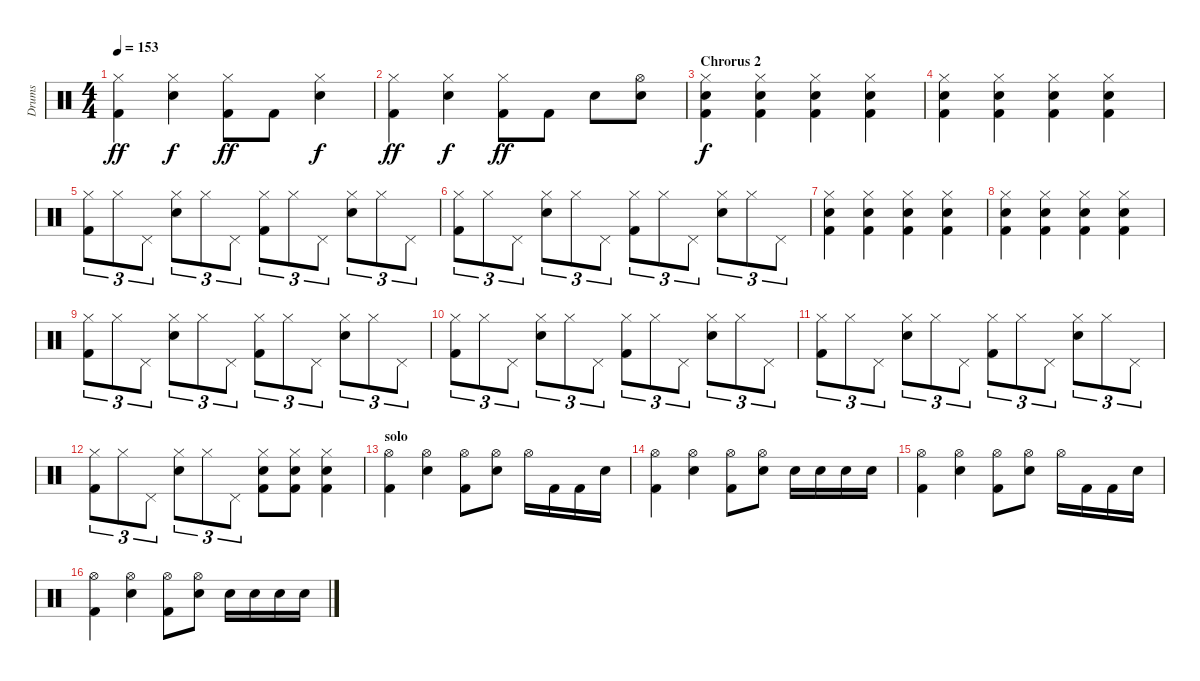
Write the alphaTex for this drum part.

\track ("Drums" "Drums") {instrument percussion}
\staff {score}
\articulation defaults
\ts (4 4)
\tempo 153
\clef neutral
\ks c
("Hi-Hat (closed)" "Kick (hit) 2").4{dy ff} ("Hi-Hat (closed)" "Electric Snare (hit)").4{dy f} ("Hi-Hat (closed)" "Kick (hit) 2").8{dy ff} "Kick (hit) 2".8 ("Hi-Hat (closed)" "Electric Snare (hit)").4{dy f} |
("Hi-Hat (closed)" "Kick (hit) 2").4{dy ff} ("Hi-Hat (closed)" "Electric Snare (hit)").4{dy f} ("Hi-Hat (closed)" "Kick (hit) 2").8{dy ff} "Kick (hit) 2".8 "Electric Snare (hit)".8 ("Hi-Hat (open)" "Electric Snare (hit)").8 |
\section ("" "Chrorus 2")
("Hi-Hat (closed)" "Electric Snare (hit)" "Kick (hit) 2").4{dy f} ("Hi-Hat (closed)" "Electric Snare (hit)" "Kick (hit) 2").4 ("Hi-Hat (closed)" "Electric Snare (hit)" "Kick (hit) 2").4 ("Hi-Hat (closed)" "Electric Snare (hit)" "Kick (hit) 2").4 |
("Hi-Hat (closed)" "Electric Snare (hit)" "Kick (hit) 2").4 ("Hi-Hat (closed)" "Electric Snare (hit)" "Kick (hit) 2").4 ("Hi-Hat (closed)" "Electric Snare (hit)" "Kick (hit) 2").4 ("Hi-Hat (closed)" "Electric Snare (hit)" "Kick (hit) 2").4 |
("Hi-Hat (closed)" "Kick (hit) 2").8{tu (3 2)} "Hi-Hat (closed)".8{tu (3 2)} "Pedal Hi-Hat (hit)".8{tu (3 2)} ("Hi-Hat (closed)" "Electric Snare (hit)").8{tu (3 2)} "Hi-Hat (closed)".8{tu (3 2)} "Pedal Hi-Hat (hit)".8{tu (3 2)} ("Hi-Hat (closed)" "Kick (hit) 2").8{tu (3 2)} "Hi-Hat (closed)".8{tu (3 2)} "Pedal Hi-Hat (hit)".8{tu (3 2)} ("Hi-Hat (closed)" "Electric Snare (hit)").8{tu (3 2)} "Hi-Hat (closed)".8{tu (3 2)} "Pedal Hi-Hat (hit)".8{tu (3 2)} |
("Hi-Hat (closed)" "Kick (hit) 2").8{tu (3 2)} "Hi-Hat (closed)".8{tu (3 2)} "Pedal Hi-Hat (hit)".8{tu (3 2)} ("Hi-Hat (closed)" "Electric Snare (hit)").8{tu (3 2)} "Hi-Hat (closed)".8{tu (3 2)} "Pedal Hi-Hat (hit)".8{tu (3 2)} ("Hi-Hat (closed)" "Kick (hit) 2").8{tu (3 2)} "Hi-Hat (closed)".8{tu (3 2)} "Pedal Hi-Hat (hit)".8{tu (3 2)} ("Hi-Hat (closed)" "Electric Snare (hit)").8{tu (3 2)} "Hi-Hat (closed)".8{tu (3 2)} "Pedal Hi-Hat (hit)".8{tu (3 2)} |
("Hi-Hat (closed)" "Electric Snare (hit)" "Kick (hit) 2").4 ("Hi-Hat (closed)" "Electric Snare (hit)" "Kick (hit) 2").4 ("Hi-Hat (closed)" "Electric Snare (hit)" "Kick (hit) 2").4 ("Hi-Hat (closed)" "Electric Snare (hit)" "Kick (hit) 2").4 |
("Hi-Hat (closed)" "Electric Snare (hit)" "Kick (hit) 2").4 ("Hi-Hat (closed)" "Electric Snare (hit)" "Kick (hit) 2").4 ("Hi-Hat (closed)" "Electric Snare (hit)" "Kick (hit) 2").4 ("Hi-Hat (closed)" "Electric Snare (hit)" "Kick (hit) 2").4 |
("Hi-Hat (closed)" "Kick (hit) 2").8{tu (3 2)} "Hi-Hat (closed)".8{tu (3 2)} "Pedal Hi-Hat (hit)".8{tu (3 2)} ("Hi-Hat (closed)" "Electric Snare (hit)").8{tu (3 2)} "Hi-Hat (closed)".8{tu (3 2)} "Pedal Hi-Hat (hit)".8{tu (3 2)} ("Hi-Hat (closed)" "Kick (hit) 2").8{tu (3 2)} "Hi-Hat (closed)".8{tu (3 2)} "Pedal Hi-Hat (hit)".8{tu (3 2)} ("Hi-Hat (closed)" "Electric Snare (hit)").8{tu (3 2)} "Hi-Hat (closed)".8{tu (3 2)} "Pedal Hi-Hat (hit)".8{tu (3 2)} |
("Hi-Hat (closed)" "Kick (hit) 2").8{tu (3 2)} "Hi-Hat (closed)".8{tu (3 2)} "Pedal Hi-Hat (hit)".8{tu (3 2)} ("Hi-Hat (closed)" "Electric Snare (hit)").8{tu (3 2)} "Hi-Hat (closed)".8{tu (3 2)} "Pedal Hi-Hat (hit)".8{tu (3 2)} ("Hi-Hat (closed)" "Kick (hit) 2").8{tu (3 2)} "Hi-Hat (closed)".8{tu (3 2)} "Pedal Hi-Hat (hit)".8{tu (3 2)} ("Hi-Hat (closed)" "Electric Snare (hit)").8{tu (3 2)} "Hi-Hat (closed)".8{tu (3 2)} "Pedal Hi-Hat (hit)".8{tu (3 2)} |
("Hi-Hat (closed)" "Kick (hit) 2").8{tu (3 2)} "Hi-Hat (closed)".8{tu (3 2)} "Pedal Hi-Hat (hit)".8{tu (3 2)} ("Hi-Hat (closed)" "Electric Snare (hit)").8{tu (3 2)} "Hi-Hat (closed)".8{tu (3 2)} "Pedal Hi-Hat (hit)".8{tu (3 2)} ("Hi-Hat (closed)" "Kick (hit) 2").8{tu (3 2)} "Hi-Hat (closed)".8{tu (3 2)} "Pedal Hi-Hat (hit)".8{tu (3 2)} ("Hi-Hat (closed)" "Electric Snare (hit)").8{tu (3 2)} "Hi-Hat (closed)".8{tu (3 2)} "Pedal Hi-Hat (hit)".8{tu (3 2)} |
("Hi-Hat (closed)" "Kick (hit) 2").8{tu (3 2)} "Hi-Hat (closed)".8{tu (3 2)} "Pedal Hi-Hat (hit)".8{tu (3 2)} ("Hi-Hat (closed)" "Electric Snare (hit)").8{tu (3 2)} "Hi-Hat (closed)".8{tu (3 2)} "Pedal Hi-Hat (hit)".8{tu (3 2)} ("Hi-Hat (closed)" "Electric Snare (hit)" "Kick (hit) 2").8 ("Hi-Hat (closed)" "Electric Snare (hit)" "Kick (hit) 2").8 ("Hi-Hat (closed)" "Electric Snare (hit)" "Kick (hit) 2").4 |
\section ("" "solo")
("Hi-Hat (open)" "Kick (hit) 2").4 ("Hi-Hat (open)" "Electric Snare (hit)").4 ("Hi-Hat (open)" "Kick (hit) 2").8 ("Hi-Hat (open)" "Electric Snare (hit)").8 "Hi-Hat (open)".16 "Kick (hit) 2".16 "Kick (hit) 2".16 "Electric Snare (hit)".16 |
("Hi-Hat (open)" "Kick (hit) 2").4 ("Hi-Hat (open)" "Electric Snare (hit)").4 ("Hi-Hat (open)" "Kick (hit) 2").8 ("Hi-Hat (open)" "Electric Snare (hit)").8 "Electric Snare (hit)".16 "Electric Snare (hit)".16 "Electric Snare (hit)".16 "Electric Snare (hit)".16 |
("Hi-Hat (open)" "Kick (hit) 2").4 ("Hi-Hat (open)" "Electric Snare (hit)").4 ("Hi-Hat (open)" "Kick (hit) 2").8 ("Hi-Hat (open)" "Electric Snare (hit)").8 "Hi-Hat (open)".16 "Kick (hit) 2".16 "Kick (hit) 2".16 "Electric Snare (hit)".16 |
("Hi-Hat (open)" "Kick (hit) 2").4 ("Hi-Hat (open)" "Electric Snare (hit)").4 ("Hi-Hat (open)" "Kick (hit) 2").8 ("Hi-Hat (open)" "Electric Snare (hit)").8 "Electric Snare (hit)".16 "Electric Snare (hit)".16 "Electric Snare (hit)".16 "Electric Snare (hit)".16
